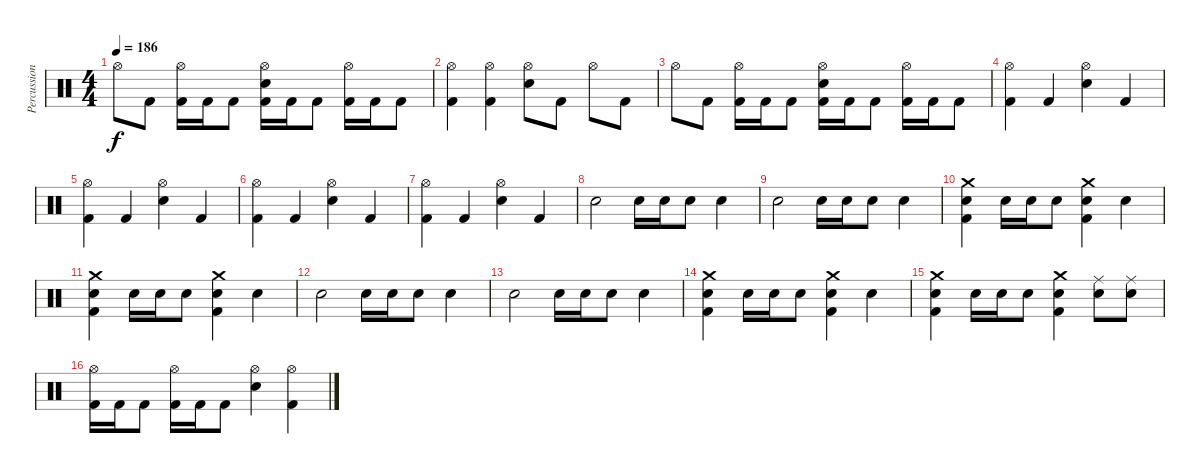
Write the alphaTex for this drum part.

\track ("Percussion" "Percussion") {instrument percussion}
\staff {score}
\articulation defaults
\ts (4 4)
\tempo 186
\clef neutral
\ks c "Hi-Hat (open)".8{dy f} "Kick (hit) 2".8
("Hi-Hat (open)" "Kick (hit) 2").16 "Kick (hit) 2".16 "Kick (hit) 2".8 ("Hi-Hat (open)" "Snare (hit) 2" "Kick (hit) 2").16 "Kick (hit) 2".16 "Kick (hit) 2".8 ("Hi-Hat (open)" "Kick (hit) 2").16 "Kick (hit) 2".16 "Kick (hit) 2".8 |
("Hi-Hat (open)" "Kick (hit) 2").4 ("Hi-Hat (open)" "Kick (hit) 2").4 ("Hi-Hat (open)" "Snare (hit) 2").8 "Kick (hit) 2".8 "Hi-Hat (open)".8 "Kick (hit) 2".8 |
"Hi-Hat (open)".8 "Kick (hit) 2".8 ("Hi-Hat (open)" "Kick (hit) 2").16 "Kick (hit) 2".16 "Kick (hit) 2".8 ("Hi-Hat (open)" "Snare (hit) 2" "Kick (hit) 2").16 "Kick (hit) 2".16 "Kick (hit) 2".8 ("Hi-Hat (open)" "Kick (hit) 2").16 "Kick (hit) 2".16 "Kick (hit) 2".8 |
("Hi-Hat (open)" "Kick (hit) 2").4 "Kick (hit) 2".4 ("Hi-Hat (open)" "Snare (hit) 2").4 "Kick (hit) 2".4 |
("Hi-Hat (open)" "Kick (hit) 2").4 "Kick (hit) 2".4 ("Hi-Hat (open)" "Snare (hit) 2").4 "Kick (hit) 2".4 |
("Hi-Hat (open)" "Kick (hit) 2").4 "Kick (hit) 2".4 ("Hi-Hat (open)" "Snare (hit) 2").4 "Kick (hit) 2".4 |
("Hi-Hat (open)" "Kick (hit) 2").4 "Kick (hit) 2".4 ("Hi-Hat (open)" "Snare (hit) 2").4 "Kick (hit) 2".4 |
"Snare (hit) 2".2 "Snare (hit) 2".16 "Snare (hit) 2".16 "Snare (hit) 2".8 "Snare (hit) 2".4 |
"Snare (hit) 2".2 "Snare (hit) 2".16 "Snare (hit) 2".16 "Snare (hit) 2".8 "Snare (hit) 2".4 |
("Crash medium (hit)" "Snare (hit) 2" "Kick (hit) 2").4 "Snare (hit) 2".16 "Snare (hit) 2".16 "Snare (hit) 2".8 ("Crash medium (hit)" "Snare (hit) 2" "Kick (hit) 2").4 "Snare (hit) 2".4 |
("Crash medium (hit)" "Snare (hit) 2" "Kick (hit) 2").4 "Snare (hit) 2".16 "Snare (hit) 2".16 "Snare (hit) 2".8 ("Crash medium (hit)" "Snare (hit) 2" "Kick (hit) 2").4 "Snare (hit) 2".4 |
"Snare (hit) 2".2 "Snare (hit) 2".16 "Snare (hit) 2".16 "Snare (hit) 2".8 "Snare (hit) 2".4 |
"Snare (hit) 2".2 "Snare (hit) 2".16 "Snare (hit) 2".16 "Snare (hit) 2".8 "Snare (hit) 2".4 |
("Crash medium (hit)" "Snare (hit) 2" "Kick (hit) 2").4 "Snare (hit) 2".16 "Snare (hit) 2".16 "Snare (hit) 2".8 ("Crash medium (hit)" "Snare (hit) 2" "Kick (hit) 2").4 "Snare (hit) 2".4 |
("Crash medium (hit)" "Snare (hit) 2" "Kick (hit) 2").4 "Snare (hit) 2".16 "Snare (hit) 2".16 "Snare (hit) 2".8 ("Crash medium (hit)" "Snare (hit) 2" "Kick (hit) 2").4 ("Ride (middle)" "Snare (hit) 2").8 ("Ride (middle)" "Snare (hit) 2").8 |
("Hi-Hat (open)" "Kick (hit) 2").16 "Kick (hit) 2".16 "Kick (hit) 2".8 ("Hi-Hat (open)" "Kick (hit) 2").16 "Kick (hit) 2".16 "Kick (hit) 2".8 ("Hi-Hat (open)" "Snare (hit) 2").4 ("Hi-Hat (open)" "Kick (hit) 2").4
